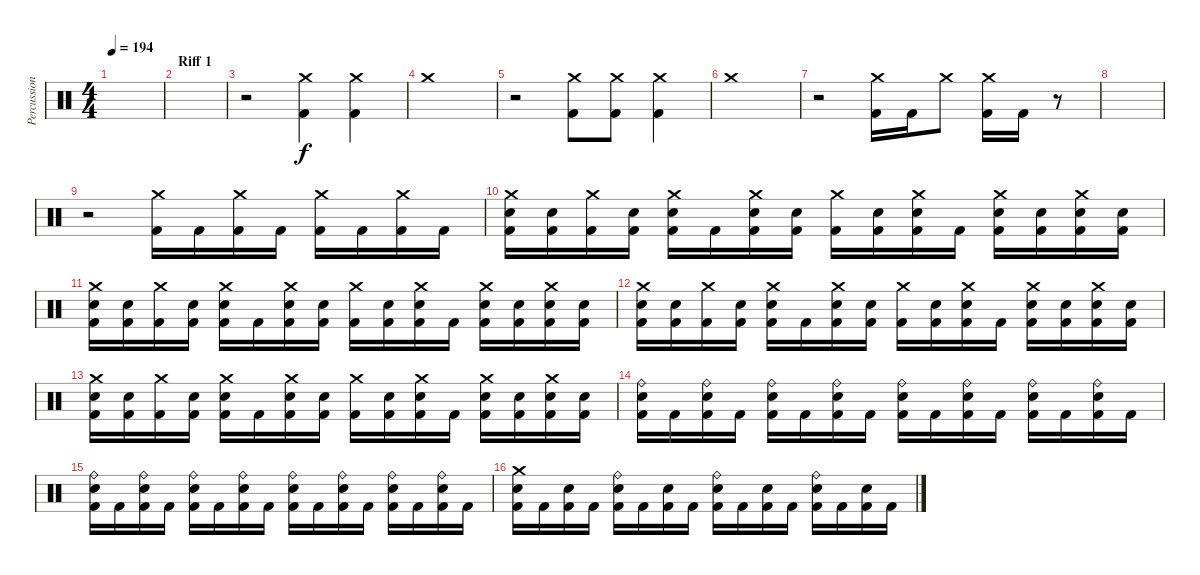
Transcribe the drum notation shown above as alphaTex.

\track ("Percussions" "Percussion") {instrument percussion}
\staff {score}
\articulation defaults
\ts (4 4)
\tempo 194
\clef neutral
\ks c
|
\section ("" "Riff 1")
|
r.2 ("Crash medium (hit)" "Kick (hit) 2").4 ("Crash medium (hit)" "Kick (hit) 2").4 |
"Crash medium (hit)".1 |
r.2 ("Crash medium (hit)" "Kick (hit) 2").8 ("Crash medium (hit)" "Kick (hit) 2").8 ("Crash medium (hit)" "Kick (hit) 2").4 |
"Crash medium (hit)".1 |
r.2 ("Crash medium (hit)" "Kick (hit) 2").16 "Kick (hit) 2".16 "Crash medium (hit)".8 ("Crash medium (hit)" "Kick (hit) 2").16 "Kick (hit) 2".16 r.8 |
|
r.2 ("Crash medium (hit)" "Kick (hit) 2").16 "Kick (hit) 2".16 ("Crash medium (hit)" "Kick (hit) 2").16 "Kick (hit) 2".16 ("Crash medium (hit)" "Kick (hit) 2").16 "Kick (hit) 2".16 ("Crash medium (hit)" "Kick (hit) 2").16 "Kick (hit) 2".16 |
("Crash medium (hit)" "Electric Snare (hit)" "Kick (hit) 2").16 ("Electric Snare (hit)" "Kick (hit) 2").16 ("Crash medium (hit)" "Kick (hit) 2").16 ("Electric Snare (hit)" "Kick (hit) 2").16 ("Crash medium (hit)" "Electric Snare (hit)" "Kick (hit) 2").16 "Kick (hit) 2".16 ("Crash medium (hit)" "Electric Snare (hit)" "Kick (hit) 2").16 ("Electric Snare (hit)" "Kick (hit) 2").16 ("Crash medium (hit)" "Kick (hit) 2").16 ("Electric Snare (hit)" "Kick (hit) 2").16 ("Crash medium (hit)" "Electric Snare (hit)" "Kick (hit) 2").16 "Kick (hit) 2".16 ("Crash medium (hit)" "Electric Snare (hit)" "Kick (hit) 2").16 ("Electric Snare (hit)" "Kick (hit) 2").16 ("Crash medium (hit)" "Electric Snare (hit)" "Kick (hit) 2").16 ("Electric Snare (hit)" "Kick (hit) 2").16 |
("Crash medium (hit)" "Electric Snare (hit)" "Kick (hit) 2").16 ("Electric Snare (hit)" "Kick (hit) 2").16 ("Crash medium (hit)" "Kick (hit) 2").16 ("Electric Snare (hit)" "Kick (hit) 2").16 ("Crash medium (hit)" "Electric Snare (hit)" "Kick (hit) 2").16 "Kick (hit) 2".16 ("Crash medium (hit)" "Electric Snare (hit)" "Kick (hit) 2").16 ("Electric Snare (hit)" "Kick (hit) 2").16 ("Crash medium (hit)" "Kick (hit) 2").16 ("Electric Snare (hit)" "Kick (hit) 2").16 ("Crash medium (hit)" "Electric Snare (hit)" "Kick (hit) 2").16 "Kick (hit) 2".16 ("Crash medium (hit)" "Electric Snare (hit)" "Kick (hit) 2").16 ("Electric Snare (hit)" "Kick (hit) 2").16 ("Crash medium (hit)" "Electric Snare (hit)" "Kick (hit) 2").16 ("Electric Snare (hit)" "Kick (hit) 2").16 |
("Crash medium (hit)" "Electric Snare (hit)" "Kick (hit) 2").16 ("Electric Snare (hit)" "Kick (hit) 2").16 ("Crash medium (hit)" "Kick (hit) 2").16 ("Electric Snare (hit)" "Kick (hit) 2").16 ("Crash medium (hit)" "Electric Snare (hit)" "Kick (hit) 2").16 "Kick (hit) 2".16 ("Crash medium (hit)" "Electric Snare (hit)" "Kick (hit) 2").16 ("Electric Snare (hit)" "Kick (hit) 2").16 ("Crash medium (hit)" "Kick (hit) 2").16 ("Electric Snare (hit)" "Kick (hit) 2").16 ("Crash medium (hit)" "Electric Snare (hit)" "Kick (hit) 2").16 "Kick (hit) 2".16 ("Crash medium (hit)" "Electric Snare (hit)" "Kick (hit) 2").16 ("Electric Snare (hit)" "Kick (hit) 2").16 ("Crash medium (hit)" "Electric Snare (hit)" "Kick (hit) 2").16 ("Electric Snare (hit)" "Kick (hit) 2").16 |
("Crash medium (hit)" "Electric Snare (hit)" "Kick (hit) 2").16 ("Electric Snare (hit)" "Kick (hit) 2").16 ("Crash medium (hit)" "Kick (hit) 2").16 ("Electric Snare (hit)" "Kick (hit) 2").16 ("Crash medium (hit)" "Electric Snare (hit)" "Kick (hit) 2").16 "Kick (hit) 2".16 ("Crash medium (hit)" "Electric Snare (hit)" "Kick (hit) 2").16 ("Electric Snare (hit)" "Kick (hit) 2").16 ("Crash medium (hit)" "Kick (hit) 2").16 ("Electric Snare (hit)" "Kick (hit) 2").16 ("Crash medium (hit)" "Electric Snare (hit)" "Kick (hit) 2").16 "Kick (hit) 2".16 ("Crash medium (hit)" "Electric Snare (hit)" "Kick (hit) 2").16 ("Electric Snare (hit)" "Kick (hit) 2").16 ("Crash medium (hit)" "Electric Snare (hit)" "Kick (hit) 2").16 ("Electric Snare (hit)" "Kick (hit) 2").16 |
("Ride (bell)" "Electric Snare (hit)" "Kick (hit) 2").16 "Kick (hit) 2".16 ("Ride (bell)" "Electric Snare (hit)" "Kick (hit) 2").16 "Kick (hit) 2".16 ("Ride (bell)" "Electric Snare (hit)" "Kick (hit) 2").16 "Kick (hit) 2".16 ("Ride (bell)" "Electric Snare (hit)" "Kick (hit) 2").16 "Kick (hit) 2".16 ("Ride (bell)" "Electric Snare (hit)" "Kick (hit) 2").16 "Kick (hit) 2".16 ("Ride (bell)" "Electric Snare (hit)" "Kick (hit) 2").16 "Kick (hit) 2".16 ("Ride (bell)" "Electric Snare (hit)" "Kick (hit) 2").16 "Kick (hit) 2".16 ("Ride (bell)" "Electric Snare (hit)" "Kick (hit) 2").16 "Kick (hit) 2".16 |
("Ride (bell)" "Electric Snare (hit)" "Kick (hit) 2").16 "Kick (hit) 2".16 ("Ride (bell)" "Electric Snare (hit)" "Kick (hit) 2").16 "Kick (hit) 2".16 ("Ride (bell)" "Electric Snare (hit)" "Kick (hit) 2").16 "Kick (hit) 2".16 ("Ride (bell)" "Electric Snare (hit)" "Kick (hit) 2").16 "Kick (hit) 2".16 ("Ride (bell)" "Electric Snare (hit)" "Kick (hit) 2").16 "Kick (hit) 2".16 ("Ride (bell)" "Electric Snare (hit)" "Kick (hit) 2").16 "Kick (hit) 2".16 ("Ride (bell)" "Electric Snare (hit)" "Kick (hit) 2").16 "Kick (hit) 2".16 ("Ride (bell)" "Electric Snare (hit)" "Kick (hit) 2").16 "Kick (hit) 2".16 |
("Crash medium (hit)" "Electric Snare (hit)" "Kick (hit) 2").16 "Kick (hit) 2".16 ("Electric Snare (hit)" "Kick (hit) 2").16 "Kick (hit) 2".16 ("Ride (bell)" "Electric Snare (hit)" "Kick (hit) 2").16 "Kick (hit) 2".16 ("Electric Snare (hit)" "Kick (hit) 2").16 "Kick (hit) 2".16 ("Ride (bell)" "Electric Snare (hit)" "Kick (hit) 2").16 "Kick (hit) 2".16 ("Electric Snare (hit)" "Kick (hit) 2").16 "Kick (hit) 2".16 ("Ride (bell)" "Electric Snare (hit)" "Kick (hit) 2").16 "Kick (hit) 2".16 ("Electric Snare (hit)" "Kick (hit) 2").16 "Kick (hit) 2".16
